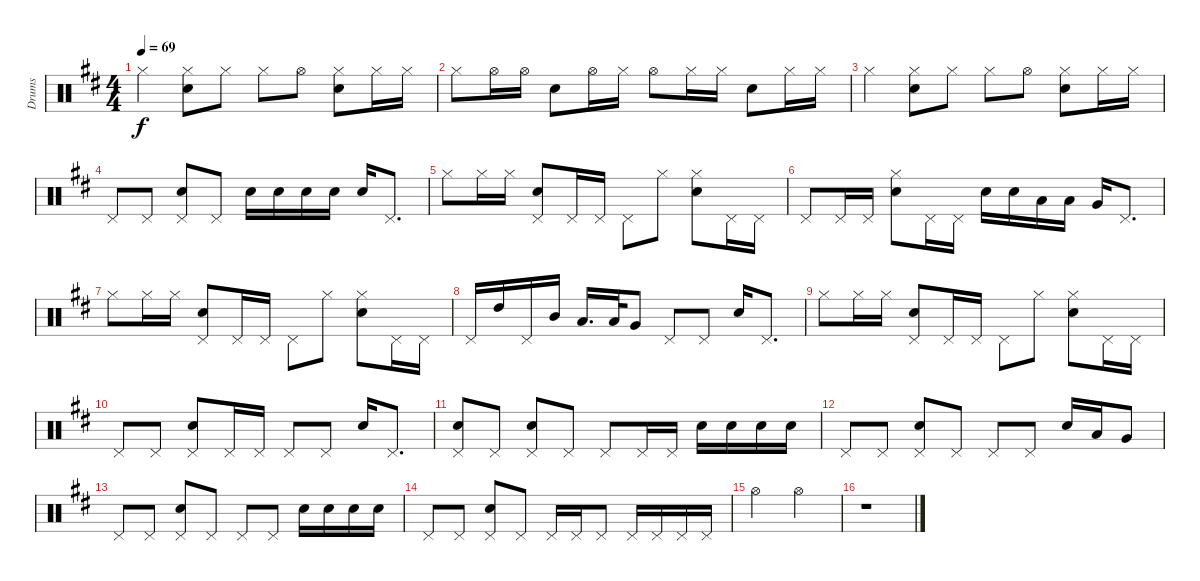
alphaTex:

\track ("Drums" "Drums") {instrument percussion}
\staff {score}
\articulation defaults
\ts (4 4)
\tempo 69
\clef neutral
\ks d "Hi-Hat (closed)".4{dy f}
("Hi-Hat (closed)" "Snare (hit) 2").8 "Hi-Hat (closed)".8 "Hi-Hat (closed)".8 "Hi-Hat (open)".8 ("Hi-Hat (closed)" "Snare (hit) 2").8 "Hi-Hat (closed)".16 "Hi-Hat (closed)".16 |
"Hi-Hat (closed)".8 "Hi-Hat (open)".16 "Hi-Hat (open)".16 "Snare (hit) 2".8 "Hi-Hat (open)".16 "Hi-Hat (closed)".16 "Hi-Hat (open)".8 "Hi-Hat (closed)".16 "Hi-Hat (closed)".16 "Snare (hit) 2".8 "Hi-Hat (closed)".16 "Hi-Hat (closed)".16 |
"Hi-Hat (closed)".4 ("Hi-Hat (closed)" "Snare (hit) 2").8 "Hi-Hat (closed)".8 "Hi-Hat (closed)".8 "Hi-Hat (open)".8 ("Hi-Hat (closed)" "Snare (hit) 2").8 "Hi-Hat (closed)".16 "Hi-Hat (closed)".16 |
"Pedal Hi-Hat (hit)".8 "Pedal Hi-Hat (hit)".8 ("Pedal Hi-Hat (hit)" "Snare (hit) 2").8 "Pedal Hi-Hat (hit)".8 "Snare (hit) 2".16 "Snare (hit) 2".16 "Snare (hit) 2".16 "Snare (hit) 2".16 "Snare (hit) 2".16 "Pedal Hi-Hat (hit)".8{d} |
"Hi-Hat (closed)".8 "Hi-Hat (closed)".16 "Hi-Hat (closed)".16 ("Snare (hit) 2" "Pedal Hi-Hat (hit)").8 "Pedal Hi-Hat (hit)".16 "Pedal Hi-Hat (hit)".16 "Pedal Hi-Hat (hit)".8 "Hi-Hat (closed)".8 ("Hi-Hat (closed)" "Snare (hit) 2").8 "Pedal Hi-Hat (hit)".16 "Pedal Hi-Hat (hit)".16 |
"Pedal Hi-Hat (hit)".8 "Pedal Hi-Hat (hit)".16 "Pedal Hi-Hat (hit)".16 ("Hi-Hat (closed)" "Snare (hit) 2").8 "Pedal Hi-Hat (hit)".16 "Pedal Hi-Hat (hit)".16 "Snare (hit) 2".16 "Snare (hit) 2".16 "Low Tom (hit)".16 "Low Tom (hit)".16 "Very Low Tom (hit)".16 "Pedal Hi-Hat (hit)".8{d} |
"Hi-Hat (closed)".8 "Hi-Hat (closed)".16 "Hi-Hat (closed)".16 ("Snare (hit) 2" "Pedal Hi-Hat (hit)").8 "Pedal Hi-Hat (hit)".16 "Pedal Hi-Hat (hit)".16 "Pedal Hi-Hat (hit)".8 "Hi-Hat (closed)".8 ("Hi-Hat (closed)" "Snare (hit) 2").8 "Pedal Hi-Hat (hit)".16 "Pedal Hi-Hat (hit)".16 |
"Pedal Hi-Hat (hit)".16 "High Tom (hit)".16 "Pedal Hi-Hat (hit)".16 "Mid Tom (hit)".16 "Low Tom (hit)".16{d} "Low Tom (hit)".32 "Very Low Tom (hit)".8 "Pedal Hi-Hat (hit)".8 "Pedal Hi-Hat (hit)".8 "Snare (hit) 2".16 "Pedal Hi-Hat (hit)".8{d} |
"Hi-Hat (closed)".8 "Hi-Hat (closed)".16 "Hi-Hat (closed)".16 ("Snare (hit) 2" "Pedal Hi-Hat (hit)").8 "Pedal Hi-Hat (hit)".16 "Pedal Hi-Hat (hit)".16 "Pedal Hi-Hat (hit)".8 "Hi-Hat (closed)".8 ("Hi-Hat (closed)" "Snare (hit) 2").8 "Pedal Hi-Hat (hit)".16 "Pedal Hi-Hat (hit)".16 |
"Pedal Hi-Hat (hit)".8 "Pedal Hi-Hat (hit)".8 ("Pedal Hi-Hat (hit)" "Snare (hit) 2").8 "Pedal Hi-Hat (hit)".16 "Pedal Hi-Hat (hit)".16 "Pedal Hi-Hat (hit)".8 "Pedal Hi-Hat (hit)".8 "Snare (hit) 2".16 "Pedal Hi-Hat (hit)".8{d} |
("Snare (hit) 2" "Pedal Hi-Hat (hit)").8 "Pedal Hi-Hat (hit)".8 ("Snare (hit) 2" "Pedal Hi-Hat (hit)").8 "Pedal Hi-Hat (hit)".8 "Pedal Hi-Hat (hit)".8 "Pedal Hi-Hat (hit)".16 "Pedal Hi-Hat (hit)".16 "Snare (hit) 2".16 "Snare (hit) 2".16 "Snare (hit) 2".16 "Snare (hit) 2".16 |
"Pedal Hi-Hat (hit)".8 "Pedal Hi-Hat (hit)".8 ("Pedal Hi-Hat (hit)" "Snare (hit) 2").8 "Pedal Hi-Hat (hit)".8 "Pedal Hi-Hat (hit)".8 "Pedal Hi-Hat (hit)".8 "Snare (hit) 2".16 "Low Tom (hit)".16 "Very Low Tom (hit)".8 |
"Pedal Hi-Hat (hit)".8 "Pedal Hi-Hat (hit)".8 ("Pedal Hi-Hat (hit)" "Snare (hit) 2").8 "Pedal Hi-Hat (hit)".8 "Pedal Hi-Hat (hit)".8 "Pedal Hi-Hat (hit)".8 "Snare (hit) 2".16 "Snare (hit) 2".16 "Snare (hit) 2".16 "Snare (hit) 2".16 |
"Pedal Hi-Hat (hit)".8 "Pedal Hi-Hat (hit)".8 ("Pedal Hi-Hat (hit)" "Snare (hit) 2").8 "Pedal Hi-Hat (hit)".8 "Pedal Hi-Hat (hit)".16 "Pedal Hi-Hat (hit)".16 "Pedal Hi-Hat (hit)".8 "Pedal Hi-Hat (hit)".16 "Pedal Hi-Hat (hit)".16 "Pedal Hi-Hat (hit)".16 "Pedal Hi-Hat (hit)".16 |
"Hi-Hat (open)".2 "Hi-Hat (open)".2 |
r.1
